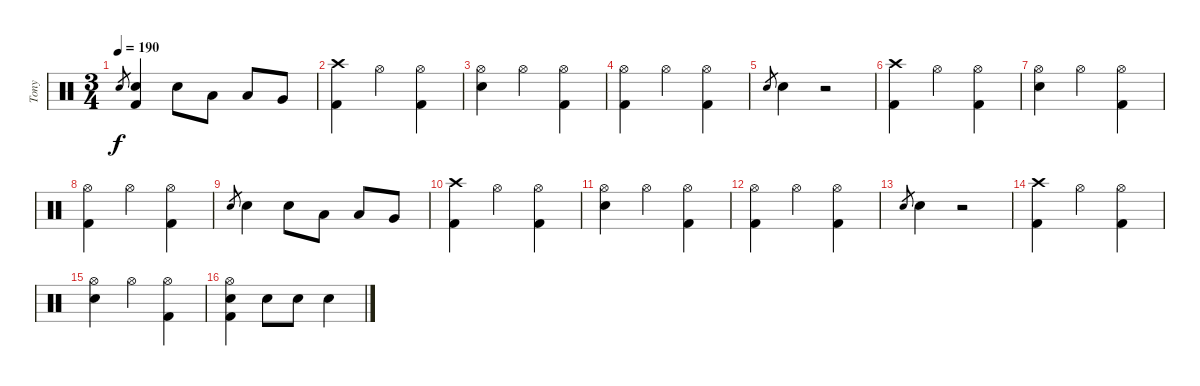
\track ("Tony" "Tony") {instrument percussion}
\staff {score}
\articulation defaults
\ts (3 4)
\tempo 190
\clef neutral
\ks c "Snare (hit) 2".8{gr dy f}
("Snare (hit) 2" "Kick (hit) 2").4 "Snare (hit) 2".8 "Low Tom (hit)".8 "Low Tom (hit)".8 "Very Low Tom (hit)".8 |
("Crash high (hit)" "Kick (hit) 2").4 "Hi-Hat (open)".4 ("Hi-Hat (open)" "Kick (hit) 2").4 |
("Hi-Hat (open)" "Snare (hit) 2").4 "Hi-Hat (open)".4 ("Hi-Hat (open)" "Kick (hit) 2").4 |
("Hi-Hat (open)" "Kick (hit) 2").4 "Hi-Hat (open)".4 ("Hi-Hat (open)" "Kick (hit) 2").4 |
"Snare (hit) 2".8{gr} "Snare (hit) 2".4 r.2 |
("Crash high (hit)" "Kick (hit) 2").4 "Hi-Hat (open)".4 ("Hi-Hat (open)" "Kick (hit) 2").4 |
("Hi-Hat (open)" "Snare (hit) 2").4 "Hi-Hat (open)".4 ("Hi-Hat (open)" "Kick (hit) 2").4 |
("Hi-Hat (open)" "Kick (hit) 2").4 "Hi-Hat (open)".4 ("Hi-Hat (open)" "Kick (hit) 2").4 |
"Snare (hit) 2".8{gr} "Snare (hit) 2".4 "Snare (hit) 2".8 "Low Tom (hit)".8 "Low Tom (hit)".8 "Very Low Tom (hit)".8 |
("Crash high (hit)" "Kick (hit) 2").4 "Hi-Hat (open)".4 ("Hi-Hat (open)" "Kick (hit) 2").4 |
("Hi-Hat (open)" "Snare (hit) 2").4 "Hi-Hat (open)".4 ("Hi-Hat (open)" "Kick (hit) 2").4 |
("Hi-Hat (open)" "Kick (hit) 2").4 "Hi-Hat (open)".4 ("Hi-Hat (open)" "Kick (hit) 2").4 |
"Snare (hit) 2".8{gr} "Snare (hit) 2".4 r.2 |
("Crash high (hit)" "Kick (hit) 2").4 "Hi-Hat (open)".4 ("Hi-Hat (open)" "Kick (hit) 2").4 |
("Hi-Hat (open)" "Snare (hit) 2").4 "Hi-Hat (open)".4 ("Hi-Hat (open)" "Kick (hit) 2").4 |
("Hi-Hat (open)" "Snare (hit) 2" "Kick (hit) 2").4 "Snare (hit) 2".8 "Snare (hit) 2".8 "Snare (hit) 2".4
